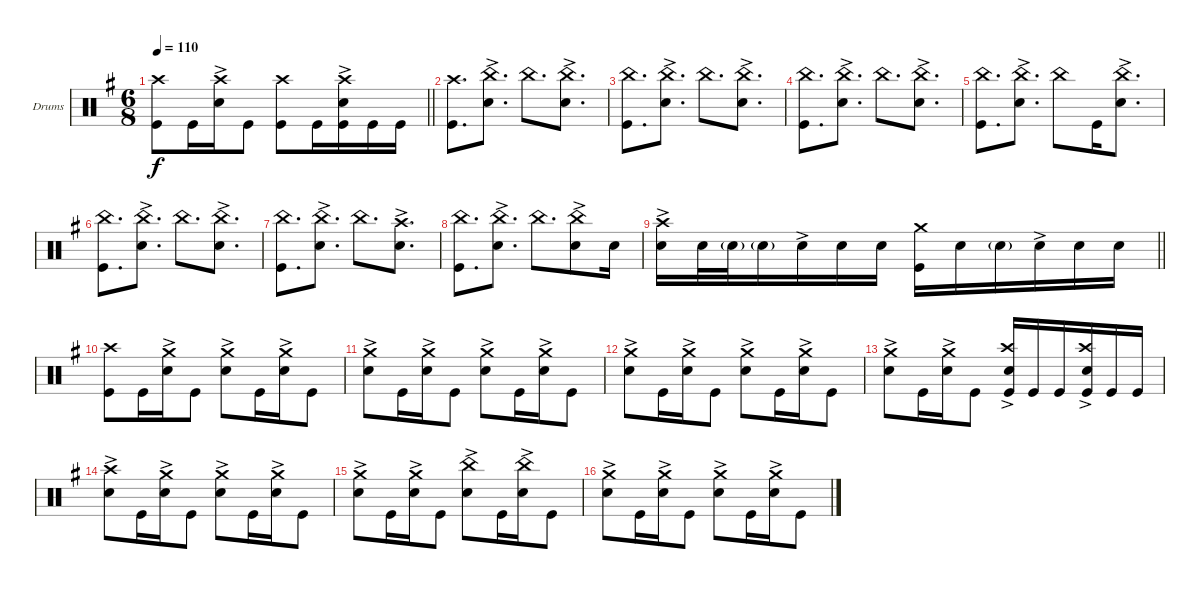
\bracketExtendMode groupsimilarinstruments
\firstSystemTrackNameOrientation horizontal
\otherSystemsTrackNameOrientation horizontal
\track ("Drumkit" "Drums") {instrument percussion}
\staff {score}
\articulation defaults
\ts (6 8)
\tempo 110
\clef neutral
\barLineRight lightlight
\ks eminor
("Kick (hit)" "Crash high (hit)").8{dy f} "Kick (hit)".16 ("Snare (hit) 2"{ac} "Crash high (hit)").16 "Kick (hit)".8 ("Kick (hit)" "Crash high (hit)").8 "Kick (hit)".16 ("Snare (hit) 2"{ac} "Crash high (hit)" "Kick (hit)").16 "Kick (hit)".16 "Kick (hit)".16 |
("Kick (hit)" "Crash high (hit)").8{d} ("Snare (hit) 2"{ac} "China (hit)").8{d} "China (hit)".8{d} ("Snare (hit) 2"{ac} "China (hit)").8{d} |
("Kick (hit)" "China (hit)").8{d} ("Snare (hit) 2"{ac} "China (hit)").8{d} "China (hit)".8{d} ("Snare (hit) 2"{ac} "China (hit)").8{d} |
("Kick (hit)" "China (hit)").8{d} ("Snare (hit) 2"{ac} "China (hit)").8{d} "China (hit)".8{d} ("Snare (hit) 2"{ac} "China (hit)").8{d} |
("Kick (hit)" "China (hit)").8{d} ("Snare (hit) 2"{ac} "China (hit)").8{d} "China (hit)".8 "Kick (hit)".16 ("Snare (hit) 2"{ac} "China (hit)").8{d} |
("Kick (hit)" "China (hit)").8{d} ("Snare (hit) 2"{ac} "China (hit)").8{d} "China (hit)".8{d} ("Snare (hit) 2"{ac} "China (hit)").8{d} |
("Kick (hit)" "China (hit)").8{d} ("Snare (hit) 2"{ac} "China (hit)").8{d} "China (hit)".8{d} ("Snare (hit) 2"{ac} "Crash high (hit)").8{d} |
("Kick (hit)" "China (hit)").8{d} ("Snare (hit) 2"{ac} "China (hit)").8{d} "China (hit)".8{d} ("Snare (hit) 2"{ac} "China (hit)").8 "Snare (hit) 2".16 |
\barLineRight lightlight
("Snare (hit) 2"{ac} "Crash high (hit)").16 "Snare (hit) 2".32 "Snare (hit) 2"{g}.32 "Snare (hit) 2"{g}.16 "Snare (hit) 2"{ac}.16 "Snare (hit) 2".16 "Snare (hit) 2".16 ("Kick (hit)" "Crash medium (hit)").16 "Snare (hit) 2".16 "Snare (hit) 2"{g}.16 "Snare (hit) 2"{ac}.16 "Snare (hit) 2".16 "Snare (hit) 2".16 |
("Kick (hit)" "Crash high (hit)").8 "Kick (hit)".16 ("Snare (hit) 2"{ac} "Crash medium (hit)").16 "Kick (hit)".8 ("Snare (hit) 2"{ac} "Crash medium (hit)").8 "Kick (hit)".16 ("Snare (hit) 2"{ac} "Crash medium (hit)").16 "Kick (hit)".8 |
("Snare (hit) 2"{ac} "Crash medium (hit)").8 "Kick (hit)".16 ("Snare (hit) 2"{ac} "Crash medium (hit)").16 "Kick (hit)".8 ("Snare (hit) 2"{ac} "Crash medium (hit)").8 "Kick (hit)".16 ("Snare (hit) 2"{ac} "Crash medium (hit)").16 "Kick (hit)".8 |
("Snare (hit) 2"{ac} "Crash medium (hit)").8 "Kick (hit)".16 ("Snare (hit) 2"{ac} "Crash medium (hit)").16 "Kick (hit)".8 ("Snare (hit) 2"{ac} "Crash medium (hit)").8 "Kick (hit)".16 ("Snare (hit) 2"{ac} "Crash medium (hit)").16 "Kick (hit)".8 |
("Snare (hit) 2"{ac} "Crash medium (hit)").8 "Kick (hit)".16 ("Snare (hit) 2"{ac} "Crash medium (hit)").16 "Kick (hit)".8 ("Kick (hit)" "Snare (hit) 2"{ac} "Crash high (hit)").16 "Kick (hit)".16 "Kick (hit)".16 ("Kick (hit)" "Snare (hit) 2"{ac} "Crash high (hit)").16 "Kick (hit)".16 "Kick (hit)".16 |
("Snare (hit) 2"{ac} "Crash high (hit)").8 "Kick (hit)".16 ("Snare (hit) 2"{ac} "Crash medium (hit)").16 "Kick (hit)".8 ("Snare (hit) 2"{ac} "Crash medium (hit)").8 "Kick (hit)".16 ("Snare (hit) 2"{ac} "Crash medium (hit)").16 "Kick (hit)".8 |
("Snare (hit) 2"{ac} "Crash medium (hit)").8 "Kick (hit)".16 ("Snare (hit) 2"{ac} "Crash medium (hit)").16 "Kick (hit)".8 ("Snare (hit) 2"{ac} "China (hit)").8 "Kick (hit)".16 ("Snare (hit) 2"{ac} "China (hit)").16 "Kick (hit)".8 |
("Snare (hit) 2"{ac} "Crash medium (hit)").8 "Kick (hit)".16 ("Snare (hit) 2"{ac} "Crash medium (hit)").16 "Kick (hit)".8 ("Snare (hit) 2"{ac} "Crash medium (hit)").8 "Kick (hit)".16 ("Snare (hit) 2"{ac} "Crash medium (hit)").16 "Kick (hit)".8
